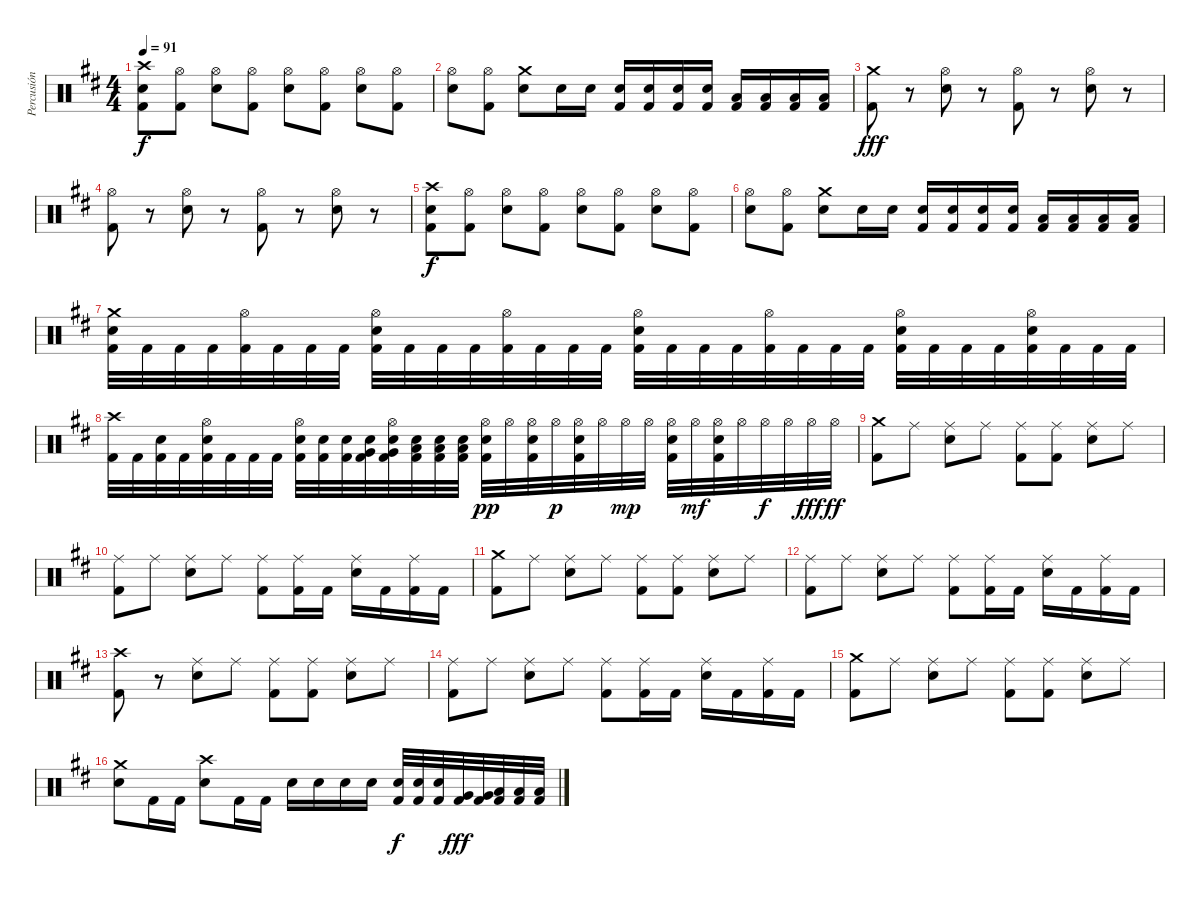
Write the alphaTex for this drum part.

\track ("Percusión" "Percusión") {instrument percussion}
\staff {score}
\articulation defaults
\ts (4 4)
\tempo 91
\clef neutral
\ks d
("Crash high (hit)" "Electric Snare (hit)" "Kick (hit) 2").8{dy f} ("Hi-Hat (open)" "Kick (hit) 2").8 ("Hi-Hat (open)" "Electric Snare (hit)").8 ("Hi-Hat (open)" "Kick (hit) 2").8 ("Hi-Hat (open)" "Electric Snare (hit)").8 ("Hi-Hat (open)" "Kick (hit) 2").8 ("Hi-Hat (open)" "Electric Snare (hit)").8 ("Hi-Hat (open)" "Kick (hit) 2").8 |
("Hi-Hat (open)" "Electric Snare (hit)").8 ("Hi-Hat (open)" "Kick (hit) 2").8 ("Crash medium (hit)" "Electric Snare (hit)").8 "Electric Snare (hit)".16 "Electric Snare (hit)".16 ("Electric Snare (hit)" "Kick (hit) 2").16 ("Electric Snare (hit)" "Kick (hit) 2").16 ("Electric Snare (hit)" "Kick (hit) 2").16 ("Electric Snare (hit)" "Kick (hit) 2").16 ("Low Floor Tom (hit)" "Kick (hit) 2").16 ("Low Floor Tom (hit)" "Kick (hit) 2").16 ("Low Floor Tom (hit)" "Kick (hit) 2").16 ("Low Floor Tom (hit)" "Kick (hit) 2").16 |
("Crash medium (hit)" "Kick (hit) 2").8{dy fff} r.8 ("Hi-Hat (open)" "Electric Snare (hit)").8 r.8 ("Hi-Hat (open)" "Kick (hit) 2").8 r.8 ("Hi-Hat (open)" "Electric Snare (hit)").8 r.8 |
("Hi-Hat (open)" "Kick (hit) 2").8 r.8 ("Hi-Hat (open)" "Electric Snare (hit)").8 r.8 ("Hi-Hat (open)" "Kick (hit) 2").8 r.8 ("Hi-Hat (open)" "Electric Snare (hit)").8 r.8 |
("Crash high (hit)" "Electric Snare (hit)" "Kick (hit) 2").8{dy f} ("Hi-Hat (open)" "Kick (hit) 2").8 ("Hi-Hat (open)" "Electric Snare (hit)").8 ("Hi-Hat (open)" "Kick (hit) 2").8 ("Hi-Hat (open)" "Electric Snare (hit)").8 ("Hi-Hat (open)" "Kick (hit) 2").8 ("Hi-Hat (open)" "Electric Snare (hit)").8 ("Hi-Hat (open)" "Kick (hit) 2").8 |
("Hi-Hat (open)" "Electric Snare (hit)").8 ("Hi-Hat (open)" "Kick (hit) 2").8 ("Crash medium (hit)" "Electric Snare (hit)").8 "Electric Snare (hit)".16 "Electric Snare (hit)".16 ("Electric Snare (hit)" "Kick (hit) 2").16 ("Electric Snare (hit)" "Kick (hit) 2").16 ("Electric Snare (hit)" "Kick (hit) 2").16 ("Electric Snare (hit)" "Kick (hit) 2").16 ("Low Floor Tom (hit)" "Kick (hit) 2").16 ("Low Floor Tom (hit)" "Kick (hit) 2").16 ("Low Floor Tom (hit)" "Kick (hit) 2").16 ("Low Floor Tom (hit)" "Kick (hit) 2").16 |
("Crash medium (hit)" "Electric Snare (hit)" "Kick (hit) 2").32 "Kick (hit) 2".32 "Kick (hit) 2".32 "Kick (hit) 2".32 ("Hi-Hat (open)" "Kick (hit) 2").32 "Kick (hit) 2".32 "Kick (hit) 2".32 "Kick (hit) 2".32 ("Hi-Hat (open)" "Electric Snare (hit)" "Kick (hit) 2").32 "Kick (hit) 2".32 "Kick (hit) 2".32 "Kick (hit) 2".32 ("Hi-Hat (open)" "Kick (hit) 2").32 "Kick (hit) 2".32 "Kick (hit) 2".32 "Kick (hit) 2".32 ("Hi-Hat (open)" "Electric Snare (hit)" "Kick (hit) 2").32 "Kick (hit) 2".32 "Kick (hit) 2".32 "Kick (hit) 2".32 ("Hi-Hat (open)" "Kick (hit) 2").32 "Kick (hit) 2".32 "Kick (hit) 2".32 "Kick (hit) 2".32 ("Hi-Hat (open)" "Electric Snare (hit)" "Kick (hit) 2").32 "Kick (hit) 2".32 "Kick (hit) 2".32 "Kick (hit) 2".32 ("Hi-Hat (open)" "Electric Snare (hit)" "Kick (hit) 2").32 "Kick (hit) 2".32 "Kick (hit) 2".32 "Kick (hit) 2".32 |
("Crash high (hit)" "Kick (hit) 2").32 "Kick (hit) 2".32 ("Electric Snare (hit)" "Kick (hit) 2").32 "Kick (hit) 2".32 ("Hi-Hat (open)" "Electric Snare (hit)" "Kick (hit) 2").32 "Kick (hit) 2".32 "Kick (hit) 2".32 "Kick (hit) 2".32 ("Hi-Hat (open)" "Electric Snare (hit)" "Kick (hit) 2").32 ("Electric Snare (hit)" "Kick (hit) 2").32 ("Electric Snare (hit)" "Kick (hit) 2").32 ("Electric Snare (hit)" "Very Low Tom (hit)" "Kick (hit) 2").32 ("Hi-Hat (open)" "Electric Snare (hit)" "Very Low Tom (hit)" "Kick (hit) 2").32 ("Electric Snare (hit)" "Low Floor Tom (hit)" "Kick (hit) 2").32 ("Electric Snare (hit)" "Low Floor Tom (hit)" "Kick (hit) 2").32 ("Electric Snare (hit)" "Low Floor Tom (hit)" "Kick (hit) 2").32 ("Hi-Hat (open)" "Electric Snare (hit)" "Kick (hit) 2").32{dy pp} "Hi-Hat (open)".32 ("Hi-Hat (open)" "Electric Snare (hit)" "Kick (hit) 2").32 "Hi-Hat (open)".32{dy p} ("Hi-Hat (open)" "Electric Snare (hit)" "Kick (hit) 2").32 "Hi-Hat (open)".32 "Hi-Hat (open)".32{dy mp} "Hi-Hat (open)".32 ("Hi-Hat (open)" "Electric Snare (hit)" "Kick (hit) 2").32 "Hi-Hat (open)".32{dy mf} ("Hi-Hat (open)" "Electric Snare (hit)" "Kick (hit) 2").32 "Hi-Hat (open)".32 "Hi-Hat (open)".32{dy f} "Hi-Hat (open)".32 "Hi-Hat (open)".32{dy fff} "Hi-Hat (open)".32{dy ff} |
("Crash medium (hit)" "Kick (hit) 2").8 "Ride (middle)".8 ("Ride (middle)" "Electric Snare (hit)").8 "Ride (middle)".8 ("Ride (middle)" "Kick (hit) 2").8 ("Ride (middle)" "Kick (hit) 2").8 ("Ride (middle)" "Electric Snare (hit)").8 "Ride (middle)".8 |
("Ride (middle)" "Kick (hit) 2").8 "Ride (middle)".8 ("Ride (middle)" "Electric Snare (hit)").8 "Ride (middle)".8 ("Ride (middle)" "Kick (hit) 2").8 ("Ride (middle)" "Kick (hit) 2").16 "Kick (hit) 2".16 ("Ride (middle)" "Electric Snare (hit)").16 "Kick (hit) 2".16 ("Ride (middle)" "Kick (hit) 2").16 "Kick (hit) 2".16 |
("Crash medium (hit)" "Kick (hit) 2").8 "Ride (middle)".8 ("Ride (middle)" "Electric Snare (hit)").8 "Ride (middle)".8 ("Ride (middle)" "Kick (hit) 2").8 ("Ride (middle)" "Kick (hit) 2").8 ("Ride (middle)" "Electric Snare (hit)").8 "Ride (middle)".8 |
("Ride (middle)" "Kick (hit) 2").8 "Ride (middle)".8 ("Ride (middle)" "Electric Snare (hit)").8 "Ride (middle)".8 ("Ride (middle)" "Kick (hit) 2").8 ("Ride (middle)" "Kick (hit) 2").16 "Kick (hit) 2".16 ("Ride (middle)" "Electric Snare (hit)").16 "Kick (hit) 2".16 ("Ride (middle)" "Kick (hit) 2").16 "Kick (hit) 2".16 |
("Crash high (hit)" "Kick (hit) 2").8 r.8 ("Ride (middle)" "Electric Snare (hit)").8 "Ride (middle)".8 ("Ride (middle)" "Kick (hit) 2").8 ("Ride (middle)" "Kick (hit) 2").8 ("Ride (middle)" "Electric Snare (hit)").8 "Ride (middle)".8 |
("Ride (middle)" "Kick (hit) 2").8 "Ride (middle)".8 ("Ride (middle)" "Electric Snare (hit)").8 "Ride (middle)".8 ("Ride (middle)" "Kick (hit) 2").8 ("Ride (middle)" "Kick (hit) 2").16 "Kick (hit) 2".16 ("Ride (middle)" "Electric Snare (hit)").16 "Kick (hit) 2".16 ("Ride (middle)" "Kick (hit) 2").16 "Kick (hit) 2".16 |
("Crash medium (hit)" "Kick (hit) 2").8 "Ride (middle)".8 ("Ride (middle)" "Electric Snare (hit)").8 "Ride (middle)".8 ("Ride (middle)" "Kick (hit) 2").8 ("Ride (middle)" "Kick (hit) 2").8 ("Ride (middle)" "Electric Snare (hit)").8 "Ride (middle)".8 |
("Crash medium (hit)" "Electric Snare (hit)").8 "Kick (hit) 2".16 "Kick (hit) 2".16 ("Crash high (hit)" "Electric Snare (hit)").8 "Kick (hit) 2".16 "Kick (hit) 2".16 "Electric Snare (hit)".16 "Electric Snare (hit)".16 "Electric Snare (hit)".16 "Electric Snare (hit)".16 ("Electric Snare (hit)" "Kick (hit) 2").32{dy f} ("Electric Snare (hit)" "Kick (hit) 2").32 ("Electric Snare (hit)" "Kick (hit) 2").32 ("Very Low Tom (hit)" "Kick (hit) 2").32{dy fff} ("Very Low Tom (hit)" "Kick (hit) 2").32 ("Low Floor Tom (hit)" "Kick (hit) 2").32 ("Low Floor Tom (hit)" "Kick (hit) 2").32 ("Low Floor Tom (hit)" "Kick (hit) 2").32
